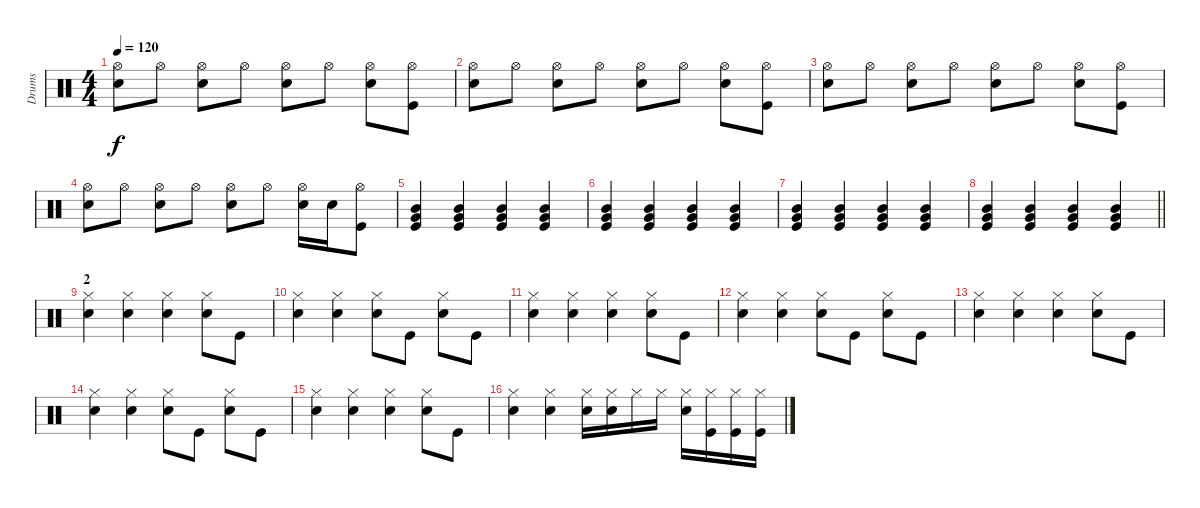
\track ("Drums" "Drums") {instrument percussion}
\staff {score}
\articulation defaults
\ts (4 4)
\tempo 120
\clef neutral
\ks c
("Snare (hit) 2" "Hi-Hat (open)").8{dy f} "Hi-Hat (open)".8 ("Snare (hit) 2" "Hi-Hat (open)").8 "Hi-Hat (open)".8 ("Snare (hit) 2" "Hi-Hat (open)").8 "Hi-Hat (open)".8 ("Snare (hit) 2" "Hi-Hat (open)").8 ("Kick (hit)" "Hi-Hat (open)").8 |
("Snare (hit) 2" "Hi-Hat (open)").8 "Hi-Hat (open)".8 ("Snare (hit) 2" "Hi-Hat (open)").8 "Hi-Hat (open)".8 ("Snare (hit) 2" "Hi-Hat (open)").8 "Hi-Hat (open)".8 ("Snare (hit) 2" "Hi-Hat (open)").8 ("Kick (hit)" "Hi-Hat (open)").8 |
("Snare (hit) 2" "Hi-Hat (open)").8 "Hi-Hat (open)".8 ("Snare (hit) 2" "Hi-Hat (open)").8 "Hi-Hat (open)".8 ("Snare (hit) 2" "Hi-Hat (open)").8 "Hi-Hat (open)".8 ("Snare (hit) 2" "Hi-Hat (open)").8 ("Kick (hit)" "Hi-Hat (open)").8 |
("Snare (hit) 2" "Hi-Hat (open)").8 "Hi-Hat (open)".8 ("Snare (hit) 2" "Hi-Hat (open)").8 "Hi-Hat (open)".8 ("Snare (hit) 2" "Hi-Hat (open)").8 "Hi-Hat (open)".8 ("Snare (hit) 2" "Hi-Hat (open)").16 "Snare (hit) 2".16 ("Kick (hit)" "Hi-Hat (open)").8 |
("Very Low Tom (hit)" "Kick (hit)" "Mid Tom (hit)").4 ("Very Low Tom (hit)" "Kick (hit)" "Mid Tom (hit)").4 ("Very Low Tom (hit)" "Kick (hit)" "Mid Tom (hit)").4 ("Very Low Tom (hit)" "Kick (hit)" "Mid Tom (hit)").4 |
("Very Low Tom (hit)" "Kick (hit)" "Mid Tom (hit)").4 ("Very Low Tom (hit)" "Kick (hit)" "Mid Tom (hit)").4 ("Very Low Tom (hit)" "Kick (hit)" "Mid Tom (hit)").4 ("Very Low Tom (hit)" "Kick (hit)" "Mid Tom (hit)").4 |
("Very Low Tom (hit)" "Kick (hit)" "Mid Tom (hit)").4 ("Very Low Tom (hit)" "Kick (hit)" "Mid Tom (hit)").4 ("Very Low Tom (hit)" "Kick (hit)" "Mid Tom (hit)").4 ("Very Low Tom (hit)" "Kick (hit)" "Mid Tom (hit)").4 |
\barLineRight lightlight
("Very Low Tom (hit)" "Kick (hit)" "Mid Tom (hit)").4 ("Very Low Tom (hit)" "Kick (hit)" "Mid Tom (hit)").4 ("Very Low Tom (hit)" "Kick (hit)" "Mid Tom (hit)").4 ("Very Low Tom (hit)" "Kick (hit)" "Mid Tom (hit)").4 |
\section ("" "2")
("Snare (hit) 2" "Hi-Hat (closed)").4 ("Snare (hit) 2" "Hi-Hat (closed)").4 ("Snare (hit) 2" "Hi-Hat (closed)").4 ("Snare (hit) 2" "Hi-Hat (closed)").8 "Kick (hit)".8 |
("Snare (hit) 2" "Hi-Hat (closed)").4 ("Snare (hit) 2" "Hi-Hat (closed)").4 ("Snare (hit) 2" "Hi-Hat (closed)").8 "Kick (hit)".8 ("Snare (hit) 2" "Hi-Hat (closed)").8 "Kick (hit)".8 |
("Snare (hit) 2" "Hi-Hat (closed)").4 ("Snare (hit) 2" "Hi-Hat (closed)").4 ("Snare (hit) 2" "Hi-Hat (closed)").4 ("Snare (hit) 2" "Hi-Hat (closed)").8 "Kick (hit)".8 |
("Snare (hit) 2" "Hi-Hat (closed)").4 ("Snare (hit) 2" "Hi-Hat (closed)").4 ("Snare (hit) 2" "Hi-Hat (closed)").8 "Kick (hit)".8 ("Snare (hit) 2" "Hi-Hat (closed)").8 "Kick (hit)".8 |
("Snare (hit) 2" "Hi-Hat (closed)").4 ("Snare (hit) 2" "Hi-Hat (closed)").4 ("Snare (hit) 2" "Hi-Hat (closed)").4 ("Snare (hit) 2" "Hi-Hat (closed)").8 "Kick (hit)".8 |
("Snare (hit) 2" "Hi-Hat (closed)").4 ("Snare (hit) 2" "Hi-Hat (closed)").4 ("Snare (hit) 2" "Hi-Hat (closed)").8 "Kick (hit)".8 ("Snare (hit) 2" "Hi-Hat (closed)").8 "Kick (hit)".8 |
("Snare (hit) 2" "Hi-Hat (closed)").4 ("Snare (hit) 2" "Hi-Hat (closed)").4 ("Snare (hit) 2" "Hi-Hat (closed)").4 ("Snare (hit) 2" "Hi-Hat (closed)").8 "Kick (hit)".8 |
("Snare (hit) 2" "Hi-Hat (closed)").4 ("Snare (hit) 2" "Hi-Hat (closed)").4 ("Snare (hit) 2" "Hi-Hat (closed)").16 ("Snare (hit) 2" "Hi-Hat (closed)").16 "Hi-Hat (closed)".16 "Hi-Hat (closed)".16 ("Hi-Hat (closed)" "Snare (hit) 2").16 ("Kick (hit)" "Hi-Hat (closed)").16 ("Hi-Hat (closed)" "Kick (hit)").16 ("Hi-Hat (closed)" "Kick (hit)").16
